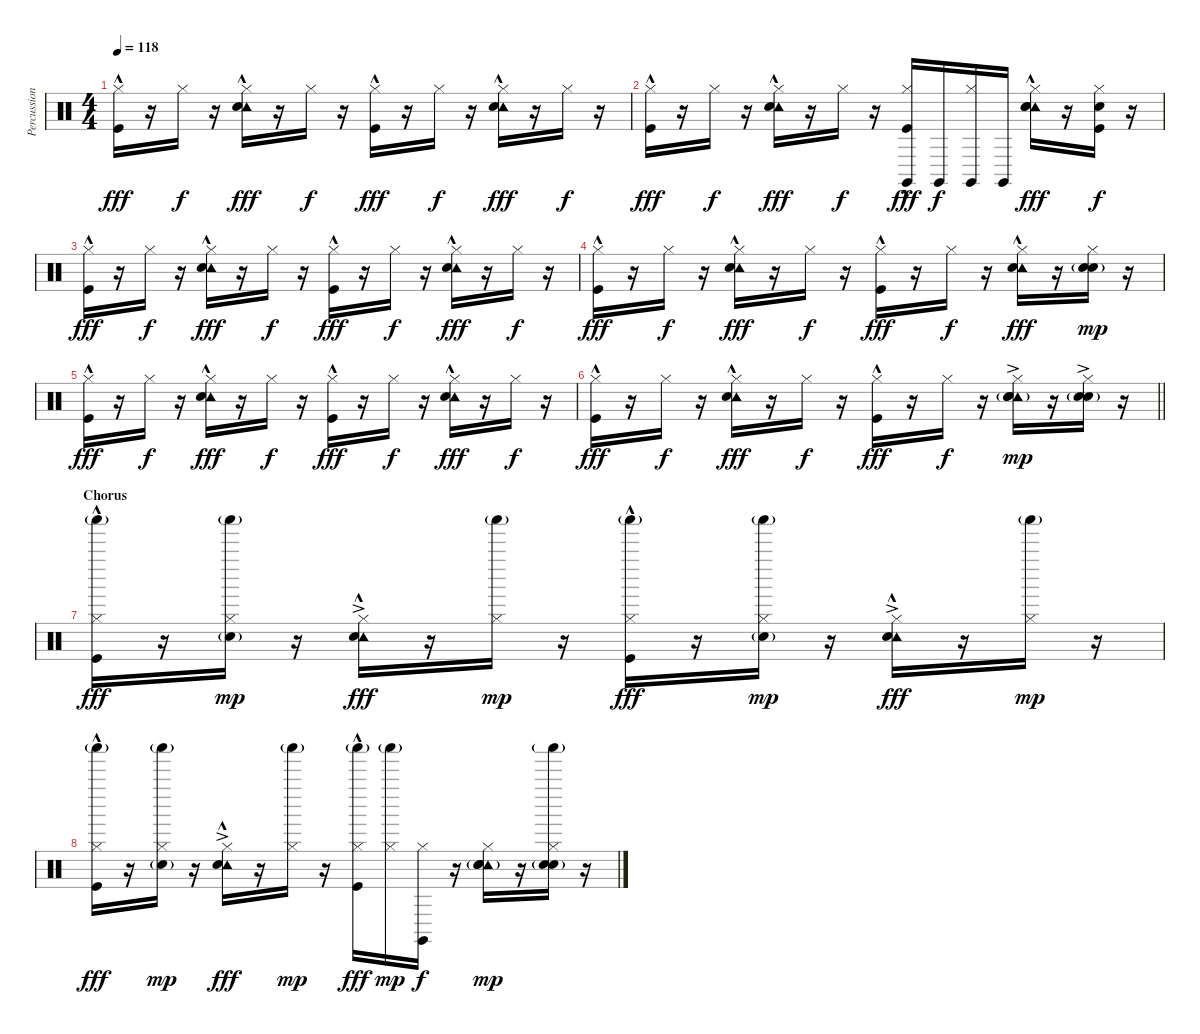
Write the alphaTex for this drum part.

\track ("Percussion" "Percussion") {instrument percussion}
\staff {score}
\articulation defaults
\ts (4 4)
\tempo 118
\clef neutral
\ks c
("Hi-Hat (closed)" "Kick (hit)"{hac}).16{dy fff} r.16 "Hi-Hat (closed)".16{dy f} r.16 ("Tambourine (hit)" "Hi-Hat (closed)" "Snare (hit) 2"{hac}).16{dy fff} r.16 "Hi-Hat (closed)".16{dy f} r.16 ("Hi-Hat (closed)" "Kick (hit)"{hac}).16{dy fff} r.16 "Hi-Hat (closed)".16{dy f} r.16 ("Tambourine (hit)" "Hi-Hat (closed)" "Snare (hit) 2"{hac}).16{dy fff} r.16 "Hi-Hat (closed)".16{dy f} r.16 |
("Hi-Hat (closed)" "Kick (hit)"{hac}).16{dy fff} r.16 "Hi-Hat (closed)".16{dy f} r.16 ("Tambourine (hit)" "Hi-Hat (closed)" "Snare (hit) 2"{hac}).16{dy fff} r.16 "Hi-Hat (closed)".16{dy f} r.16 ("Claves (hit)" "Hi-Hat (closed)" "Kick (hit)"{hac}).16{dy fff} "Claves (hit)".16{dy f} ("Claves (hit)" "Hi-Hat (closed)").16 "Claves (hit)".16 ("Tambourine (hit)" "Hi-Hat (closed)" "Hand Clap (hit)" "Snare (hit) 2"{hac}).16{dy fff} r.16 ("Hi-Hat (closed)" "Hand Clap (hit)" "Kick (hit)").16{dy f} r.16 |
("Hi-Hat (closed)" "Kick (hit)"{hac}).16{dy fff} r.16 "Hi-Hat (closed)".16{dy f} r.16 ("Tambourine (hit)" "Hi-Hat (closed)" "Snare (hit) 2"{hac}).16{dy fff} r.16 "Hi-Hat (closed)".16{dy f} r.16 ("Hi-Hat (closed)" "Kick (hit)"{hac}).16{dy fff} r.16 "Hi-Hat (closed)".16{dy f} r.16 ("Tambourine (hit)" "Hi-Hat (closed)" "Snare (hit) 2"{hac}).16{dy fff} r.16 "Hi-Hat (closed)".16{dy f} r.16 |
("Hi-Hat (closed)" "Kick (hit)"{hac}).16{dy fff} r.16 "Hi-Hat (closed)".16{dy f} r.16 ("Tambourine (hit)" "Hi-Hat (closed)" "Snare (hit) 2"{hac}).16{dy fff} r.16 "Hi-Hat (closed)".16{dy f} r.16 ("Hi-Hat (closed)" "Kick (hit)"{hac}).16{dy fff} r.16 "Hi-Hat (closed)".16{dy f} r.16 ("Tambourine (hit)" "Hi-Hat (closed)" "Snare (hit) 2"{hac}).16{dy fff} r.16 ("Hi-Hat (closed)" "Hand Clap (hit)" "Snare (hit) 2"{g}).16{dy mp} r.16 |
("Hi-Hat (closed)" "Kick (hit)"{hac}).16{dy fff} r.16 "Hi-Hat (closed)".16{dy f} r.16 ("Tambourine (hit)" "Hi-Hat (closed)" "Snare (hit) 2"{hac}).16{dy fff} r.16 "Hi-Hat (closed)".16{dy f} r.16 ("Hi-Hat (closed)" "Kick (hit)"{hac}).16{dy fff} r.16 "Hi-Hat (closed)".16{dy f} r.16 ("Tambourine (hit)" "Hi-Hat (closed)" "Snare (hit) 2"{hac}).16{dy fff} r.16 "Hi-Hat (closed)".16{dy f} r.16 |
\barLineRight lightlight
("Hi-Hat (closed)" "Kick (hit)"{hac}).16{dy fff} r.16 "Hi-Hat (closed)".16{dy f} r.16 ("Tambourine (hit)" "Hi-Hat (closed)" "Snare (hit) 2"{hac}).16{dy fff} r.16 "Hi-Hat (closed)".16{dy f} r.16 ("Hi-Hat (closed)" "Kick (hit)"{hac}).16{dy fff} r.16 "Hi-Hat (closed)".16{dy f} r.16 ("Tambourine (hit)" "Hi-Hat (closed)" "Hand Clap (hit)"{ac} "Snare (hit) 2"{g}).16{dy mp} r.16 ("Hi-Hat (closed)" "Hand Clap (hit)"{ac} "Snare (hit) 2"{g}).16 r.16 |
\section ("" "Chorus")
("Shaker (hit)"{g} "Hi-Hat (closed)" "Kick (hit)"{hac}).16{dy fff} r.16 ("Shaker (hit)"{g} "Hi-Hat (closed)" "Hand Clap (hit)"{g}).16{dy mp} r.16 ("Tambourine (hit)"{ac} "Hi-Hat (closed)" "Snare (hit) 2"{hac}).16{dy fff} r.16 ("Shaker (hit)"{g} "Hi-Hat (closed)").16{dy mp} r.16 ("Shaker (hit)"{g} "Hi-Hat (closed)" "Kick (hit)"{hac}).16{dy fff} r.16 ("Shaker (hit)"{g} "Hi-Hat (closed)" "Hand Clap (hit)"{g}).16{dy mp} r.16 ("Tambourine (hit)"{ac} "Hi-Hat (closed)" "Snare (hit) 2"{hac}).16{dy fff} r.16 ("Shaker (hit)"{g} "Hi-Hat (closed)").16{dy mp} r.16 |
("Shaker (hit)"{g} "Hi-Hat (closed)" "Kick (hit)"{hac}).16{dy fff} r.16 ("Shaker (hit)"{g} "Hi-Hat (closed)" "Hand Clap (hit)"{g}).16{dy mp} r.16 ("Tambourine (hit)"{ac} "Hi-Hat (closed)" "Snare (hit) 2"{hac}).16{dy fff} r.16 ("Shaker (hit)"{g} "Hi-Hat (closed)").16{dy mp} r.16 ("Shaker (hit)"{g} "Hi-Hat (closed)" "Kick (hit)"{hac}).16{dy fff} ("Shaker (hit)"{g} "Hi-Hat (closed)").16{dy mp} ("Claves (hit)" "Hi-Hat (closed)").16{dy f} r.16 ("Tambourine (hit)" "Hi-Hat (closed)" "Hand Clap (hit)" "Snare (hit) 2"{g}).16{dy mp} r.16 ("Shaker (hit)"{g} "Hi-Hat (closed)" "Hand Clap (hit)" "Snare (hit) 2"{g}).16 r.16
